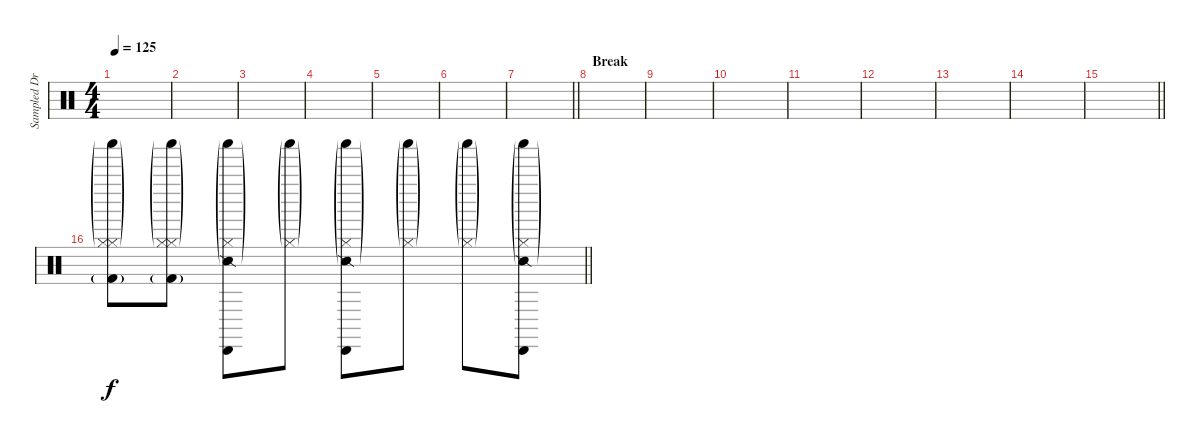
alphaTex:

\track ("Sampled Drums" "Sampled Dr") {instrument percussion}
\staff {score}
\articulation defaults
\ts (4 4)
\tempo 125
\clef neutral
\ks c
|
|
|
|
|
|
\barLineRight lightlight
|
\section ("" "Break")
|
|
|
|
|
|
|
\barLineRight lightlight
|
\barLineRight lightlight
("Shaker (hit)"{g} "Hi-Hat (closed)"{g} "Kick (hit) 2"{g} "Hi-Hat (closed)").8{volume 6 balance 16} ("Shaker (hit)"{g} "Hi-Hat (closed)"{g} "Kick (hit) 2"{g} "Hi-Hat (closed)").8 ("Shaker (hit)"{g} "Hi-Hat (closed)"{g} "Snare (side stick) 2"{g} "Cabasa (hit)").8 ("Shaker (hit)"{g} "Hi-Hat (closed)"{g}).8 ("Shaker (hit)"{g} "Hi-Hat (closed)"{g} "Snare (side stick) 2"{g} "Cabasa (hit)").8 ("Shaker (hit)"{g} "Hi-Hat (closed)"{g}).8 ("Shaker (hit)"{g} "Hi-Hat (closed)"{g}).8 ("Shaker (hit)"{g} "Hi-Hat (closed)"{g} "Snare (side stick) 2"{g} "Cabasa (hit)").8
